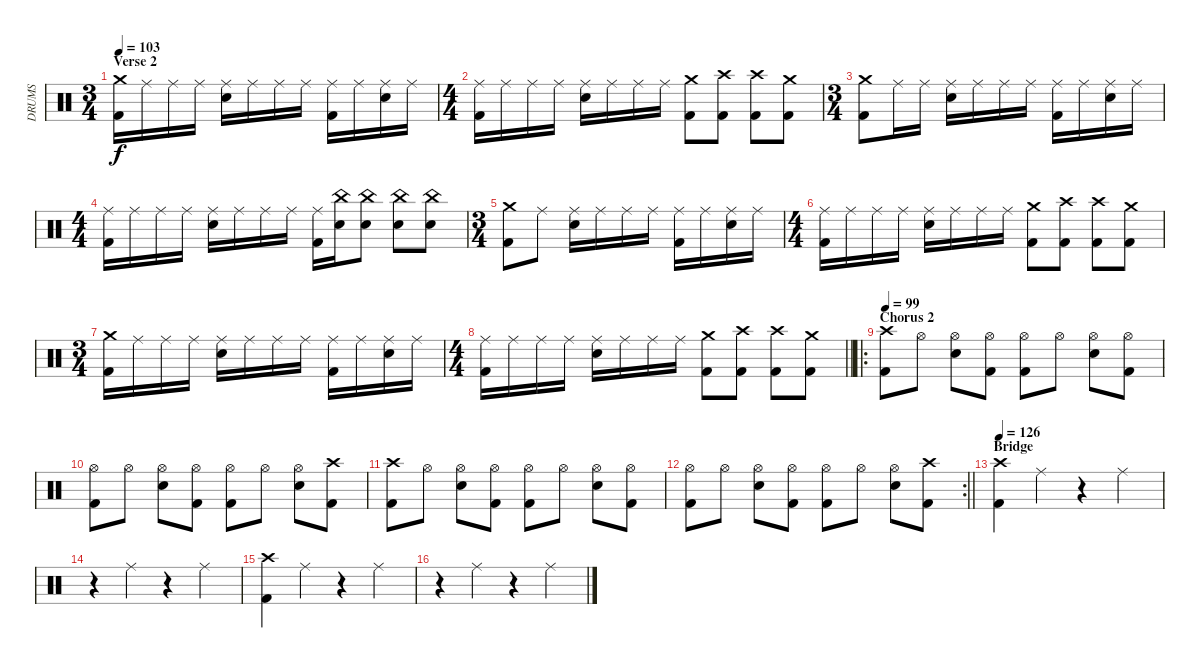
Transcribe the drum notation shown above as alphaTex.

\track ("DRUMS" "DRUMS") {instrument percussion}
\staff {score}
\articulation defaults
\ts (3 4)
\section ("" "Verse 2")
\tempo 103
\clef neutral
\ks c
("Crash medium (hit)" "Kick (hit) 2").16{dy f} "Ride (middle)".16 "Ride (middle)".16 "Ride (middle)".16 ("Ride (middle)" "Snare (hit) 2").16 "Ride (middle)".16 "Ride (middle)".16 "Ride (middle)".16 ("Ride (middle)" "Kick (hit) 2").16 "Ride (middle)".16 ("Ride (middle)" "Snare (hit) 2").16 "Ride (middle)".16 |
\ts (4 4)
("Ride (middle)" "Kick (hit) 2").16 "Ride (middle)".16 "Ride (middle)".16 "Ride (middle)".16 ("Ride (middle)" "Snare (hit) 2").16 "Ride (middle)".16 "Ride (middle)".16 "Ride (middle)".16 ("Crash medium (hit)" "Kick (hit) 2").8 ("Crash high (hit)" "Kick (hit) 2").8 ("Crash high (hit)" "Kick (hit) 2").8 ("Crash medium (hit)" "Kick (hit) 2").8 |
\ts (3 4)
("Crash medium (hit)" "Kick (hit) 2").8 "Ride (middle)".16 "Ride (middle)".16 ("Ride (middle)" "Snare (hit) 2").16 "Ride (middle)".16 "Ride (middle)".16 "Ride (middle)".16 ("Ride (middle)" "Kick (hit) 2").16 "Ride (middle)".16 ("Ride (middle)" "Snare (hit) 2").16 "Ride (middle)".16 |
\ts (4 4)
("Ride (middle)" "Kick (hit) 2").16 "Ride (middle)".16 "Ride (middle)".16 "Ride (middle)".16 ("Ride (middle)" "Snare (hit) 2").16 "Ride (middle)".16 "Ride (middle)".16 "Ride (middle)".16 ("Ride (middle)" "Kick (hit) 2").16 ("China (hit)" "Snare (hit) 2").16 ("China (hit)" "Snare (hit) 2").8 ("China (hit)" "Snare (hit) 2").8 ("China (hit)" "Snare (hit) 2").8 |
\ts (3 4)
("Crash medium (hit)" "Kick (hit) 2").8 "Ride (middle)".8 ("Ride (middle)" "Snare (hit) 2").16 "Ride (middle)".16 "Ride (middle)".16 "Ride (middle)".16 ("Ride (middle)" "Kick (hit) 2").16 "Ride (middle)".16 ("Ride (middle)" "Snare (hit) 2").16 "Ride (middle)".16 |
\ts (4 4)
("Ride (middle)" "Kick (hit) 2").16 "Ride (middle)".16 "Ride (middle)".16 "Ride (middle)".16 ("Ride (middle)" "Snare (hit) 2").16 "Ride (middle)".16 "Ride (middle)".16 "Ride (middle)".16 ("Crash medium (hit)" "Kick (hit) 2").8 ("Crash high (hit)" "Kick (hit) 2").8 ("Crash high (hit)" "Kick (hit) 2").8 ("Crash medium (hit)" "Kick (hit) 2").8 |
\ts (3 4)
("Crash medium (hit)" "Kick (hit) 2").16 "Ride (middle)".16 "Ride (middle)".16 "Ride (middle)".16 ("Ride (middle)" "Snare (hit) 2").16 "Ride (middle)".16 "Ride (middle)".16 "Ride (middle)".16 ("Ride (middle)" "Kick (hit) 2").16 "Ride (middle)".16 ("Ride (middle)" "Snare (hit) 2").16 "Ride (middle)".16 |
\ts (4 4)
\barLineRight lightlight
("Ride (middle)" "Kick (hit) 2").16 "Ride (middle)".16 "Ride (middle)".16 "Ride (middle)".16 ("Ride (middle)" "Snare (hit) 2").16 "Ride (middle)".16 "Ride (middle)".16 "Ride (middle)".16 ("Crash medium (hit)" "Kick (hit) 2").8 ("Crash high (hit)" "Kick (hit) 2").8 ("Crash high (hit)" "Kick (hit) 2").8 ("Crash medium (hit)" "Kick (hit) 2").8 |
\ro
\section ("" "Chorus 2")
\tempo 99
("Crash high (hit)" "Kick (hit) 2").8 "Hi-Hat (open)".8 ("Hi-Hat (open)" "Snare (hit) 2").8 ("Hi-Hat (open)" "Kick (hit) 2").8 ("Hi-Hat (open)" "Kick (hit) 2").8 "Hi-Hat (open)".8 ("Hi-Hat (open)" "Snare (hit) 2").8 ("Hi-Hat (open)" "Kick (hit) 2").8 |
("Hi-Hat (open)" "Kick (hit) 2").8 "Hi-Hat (open)".8 ("Hi-Hat (open)" "Snare (hit) 2").8 ("Hi-Hat (open)" "Kick (hit) 2").8 ("Hi-Hat (open)" "Kick (hit) 2").8 "Hi-Hat (open)".8 ("Hi-Hat (open)" "Snare (hit) 2").8 ("Crash high (hit)" "Kick (hit) 2").8 |
("Crash high (hit)" "Kick (hit) 2").8 "Hi-Hat (open)".8 ("Hi-Hat (open)" "Snare (hit) 2").8 ("Hi-Hat (open)" "Kick (hit) 2").8 ("Hi-Hat (open)" "Kick (hit) 2").8 "Hi-Hat (open)".8 ("Hi-Hat (open)" "Snare (hit) 2").8 ("Hi-Hat (open)" "Kick (hit) 2").8 |
\rc 2
\barLineRight lightlight
("Hi-Hat (open)" "Kick (hit) 2").8 "Hi-Hat (open)".8 ("Hi-Hat (open)" "Snare (hit) 2").8 ("Hi-Hat (open)" "Kick (hit) 2").8 ("Hi-Hat (open)" "Kick (hit) 2").8 "Hi-Hat (open)".8 ("Hi-Hat (open)" "Snare (hit) 2").8 ("Crash high (hit)" "Kick (hit) 2").8 |
\section ("" "Bridge")
\tempo 126
("Crash high (hit)" "Kick (hit) 2").4 "Ride (middle)".4 r.4 "Ride (middle)".4 |
r.4 "Ride (middle)".4 r.4 "Ride (middle)".4 |
("Crash high (hit)" "Kick (hit) 2").4 "Ride (middle)".4 r.4 "Ride (middle)".4 |
r.4 "Ride (middle)".4 r.4 "Ride (middle)".4
